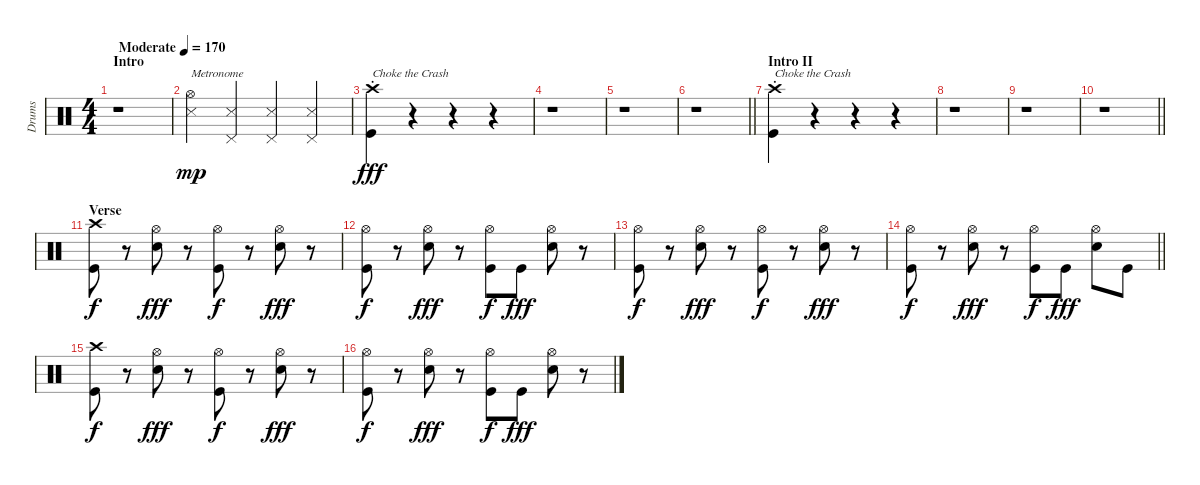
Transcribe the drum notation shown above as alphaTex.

\track ("Drums" "Drums") {instrument percussion}
\staff {score}
\articulation defaults
\ts (4 4)
\section ("" "Intro")
\tempo (170 "Moderate")
\clef neutral
\ks c
r.1{dy mp} |
("Hi-Hat (open)" "Metronome (hit)").4{txt "Metronome"} ("Pedal Hi-Hat (hit)" "Metronome (hit)").4 ("Pedal Hi-Hat (hit)" "Metronome (hit)").4 ("Pedal Hi-Hat (hit)" "Metronome (hit)").4 |
("Crash high (hit)"{st} "Kick (hit)").4{txt "Choke the Crash " dy fff} r.4 r.4 r.4 |
r.1 |
r.1 |
\barLineRight lightlight
r.1 |
\section ("" "Intro II")
("Crash high (hit)"{st} "Kick (hit)").4{txt "Choke the Crash "} r.4 r.4 r.4 |
r.1 |
r.1 |
\barLineRight lightlight
r.1 |
\section ("" "Verse")
("Crash high (hit)" "Kick (hit)").8{dy f} r.8 ("Hi-Hat (open)" "Snare (hit) 2").8{dy fff} r.8 ("Hi-Hat (open)" "Kick (hit)").8{dy f} r.8 ("Hi-Hat (open)" "Snare (hit) 2").8{dy fff} r.8 |
("Hi-Hat (open)" "Kick (hit)").8{dy f} r.8 ("Hi-Hat (open)" "Snare (hit) 2").8{dy fff} r.8 ("Hi-Hat (open)" "Kick (hit)").8{dy f} "Kick (hit)".8{dy fff} ("Hi-Hat (open)" "Snare (hit) 2").8 r.8 |
("Hi-Hat (open)" "Kick (hit)").8{dy f} r.8 ("Hi-Hat (open)" "Snare (hit) 2").8{dy fff} r.8 ("Hi-Hat (open)" "Kick (hit)").8{dy f} r.8 ("Hi-Hat (open)" "Snare (hit) 2").8{dy fff} r.8 |
\barLineRight lightlight
("Hi-Hat (open)" "Kick (hit)").8{dy f} r.8 ("Hi-Hat (open)" "Snare (hit) 2").8{dy fff} r.8 ("Hi-Hat (open)" "Kick (hit)").8{dy f} "Kick (hit)".8{dy fff} ("Hi-Hat (open)" "Snare (hit) 2").8 "Kick (hit)".8 |
("Crash high (hit)" "Kick (hit)").8{dy f} r.8 ("Hi-Hat (open)" "Snare (hit) 2").8{dy fff} r.8 ("Hi-Hat (open)" "Kick (hit)").8{dy f} r.8 ("Hi-Hat (open)" "Snare (hit) 2").8{dy fff} r.8 |
("Hi-Hat (open)" "Kick (hit)").8{dy f} r.8 ("Hi-Hat (open)" "Snare (hit) 2").8{dy fff} r.8 ("Hi-Hat (open)" "Kick (hit)").8{dy f} "Kick (hit)".8{dy fff} ("Hi-Hat (open)" "Snare (hit) 2").8 r.8
